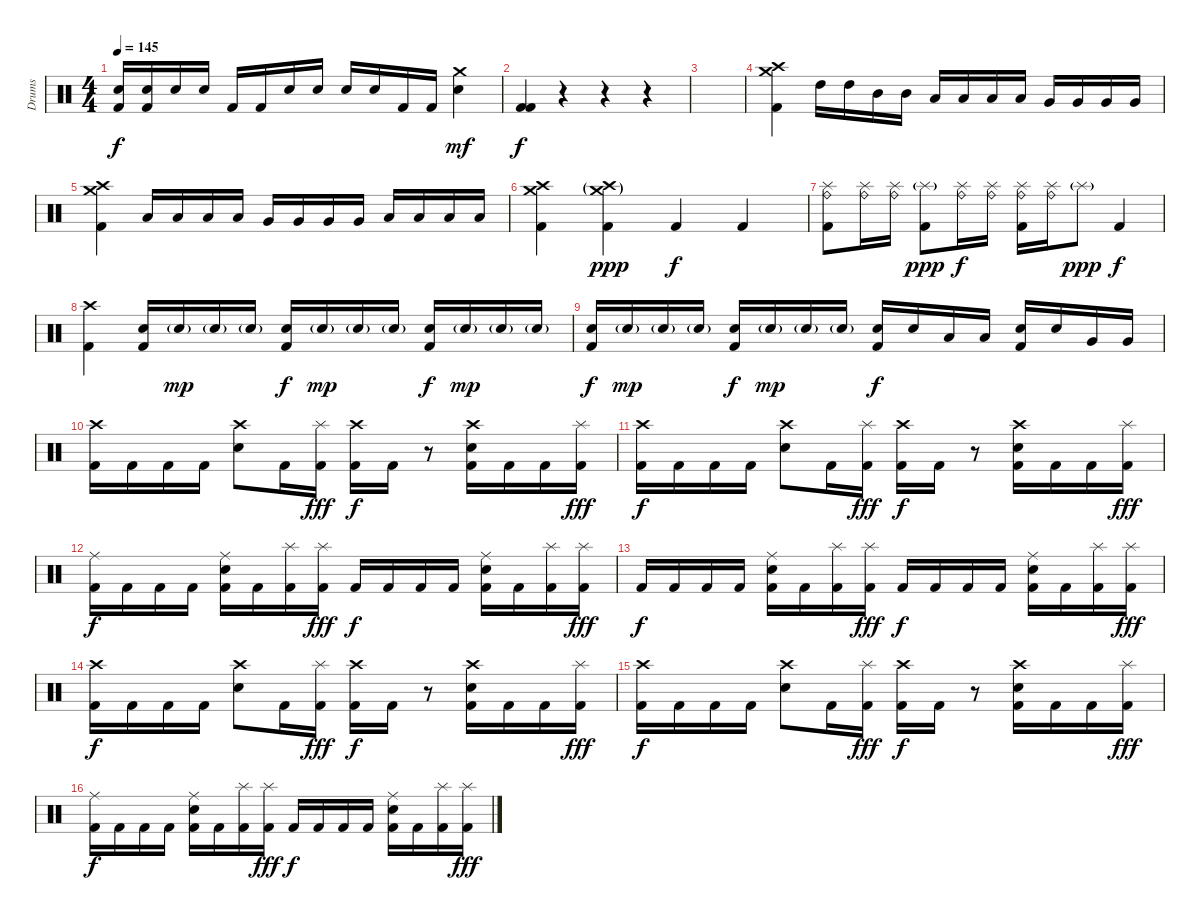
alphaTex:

\track ("Drums" "Drums") {instrument percussion}
\staff {score}
\articulation defaults
\ts (4 4)
\tempo 145
\clef neutral
\ks c
("Electric Snare (hit)" "Kick (hit) 2").16{dy f} ("Electric Snare (hit)" "Kick (hit) 2").16 "Electric Snare (hit)".16 "Electric Snare (hit)".16 "Kick (hit) 2".16 "Kick (hit) 2".16 "Electric Snare (hit)".16 "Electric Snare (hit)".16 "Electric Snare (hit)".16 "Electric Snare (hit)".16 "Kick (hit) 2".16 "Kick (hit) 2".16 ("Crash medium (hit)" "Electric Snare (hit)").4{dy mf} |
("Kick (hit) 2" "Kick (hit) 2").4{dy f} r.4 r.4 r.4 |
|
("Crash high (hit)" "Crash medium (hit)" "Kick (hit) 2").4 "High Tom (hit)".16 "High Tom (hit)".16 "Mid Tom (hit)".16 "Mid Tom (hit)".16 "Low Tom (hit)".16 "Low Tom (hit)".16 "Low Tom (hit)".16 "Low Tom (hit)".16 "Very Low Tom (hit)".16 "Very Low Tom (hit)".16 "Very Low Tom (hit)".16 "Very Low Tom (hit)".16 |
("Crash high (hit)" "Crash medium (hit)" "Kick (hit) 2").4 "Low Tom (hit)".16 "Low Tom (hit)".16 "Low Tom (hit)".16 "Low Tom (hit)".16 "Very Low Tom (hit)".16 "Very Low Tom (hit)".16 "Very Low Tom (hit)".16 "Very Low Tom (hit)".16 "Low Floor Tom (hit)".16 "Low Floor Tom (hit)".16 "Low Floor Tom (hit)".16 "Low Floor Tom (hit)".16 |
("Crash high (hit)" "Crash medium (hit)" "Kick (hit) 2").4 ("Crash high (hit)"{g} "Crash medium (hit)"{g} "Kick (hit) 2").4{dy ppp} "Kick (hit) 2".4{dy f} "Kick (hit) 2".4 |
("Splash (hit)" "Ride (bell)" "Kick (hit) 2").8{balance 0} ("Splash (hit)" "Ride (bell)").16 ("Splash (hit)" "Ride (bell)").16 ("Splash (hit)"{g} "Kick (hit) 2").8{dy ppp} ("Splash (hit)" "Ride (bell)").16{dy f} ("Splash (hit)" "Ride (bell)").16 ("Splash (hit)" "Ride (bell)" "Kick (hit) 2").16 ("Splash (hit)" "Ride (bell)").16 "Splash (hit)"{g}.8{dy ppp} "Kick (hit) 2".4{dy f balance 8} |
("Crash high (hit)" "Kick (hit) 2").4 ("Electric Snare (hit)" "Kick (hit) 2").16 "Electric Snare (hit)"{g}.16{dy mp} "Electric Snare (hit)"{g}.16 "Electric Snare (hit)"{g}.16 ("Electric Snare (hit)" "Kick (hit) 2").16{dy f} "Electric Snare (hit)"{g}.16{dy mp} "Electric Snare (hit)"{g}.16 "Electric Snare (hit)"{g}.16 ("Electric Snare (hit)" "Kick (hit) 2").16{dy f} "Electric Snare (hit)"{g}.16{dy mp} "Electric Snare (hit)"{g}.16 "Electric Snare (hit)"{g}.16 |
("Electric Snare (hit)" "Kick (hit) 2").16{dy f} "Electric Snare (hit)"{g}.16{dy mp} "Electric Snare (hit)"{g}.16 "Electric Snare (hit)"{g}.16 ("Electric Snare (hit)" "Kick (hit) 2").16{dy f} "Electric Snare (hit)"{g}.16{dy mp} "Electric Snare (hit)"{g}.16 "Electric Snare (hit)"{g}.16 ("Electric Snare (hit)" "Kick (hit) 2").16{dy f} "Electric Snare (hit)".16 "Low Tom (hit)".16 "Low Tom (hit)".16 ("Electric Snare (hit)" "Kick (hit) 2").16 "Electric Snare (hit)".16 "Very Low Tom (hit)".16 "Very Low Tom (hit)".16 |
("Crash high (hit)" "Kick (hit) 2").16 "Kick (hit) 2".16 "Kick (hit) 2".16 "Kick (hit) 2".16 ("Crash high (hit)" "Electric Snare (hit)").8 "Kick (hit) 2".16 ("Splash (hit)" "Kick (hit) 2").16{dy fff} ("Crash high (hit)" "Kick (hit) 2").16{dy f} "Kick (hit) 2".16 r.8 ("Crash high (hit)" "Electric Snare (hit)" "Kick (hit) 2").16 "Kick (hit) 2".16 "Kick (hit) 2".16 ("Splash (hit)" "Kick (hit) 2").16{dy fff} |
("Crash high (hit)" "Kick (hit) 2").16{dy f} "Kick (hit) 2".16 "Kick (hit) 2".16 "Kick (hit) 2".16 ("Crash high (hit)" "Electric Snare (hit)").8 "Kick (hit) 2".16 ("Splash (hit)" "Kick (hit) 2").16{dy fff} ("Crash high (hit)" "Kick (hit) 2").16{dy f} "Kick (hit) 2".16 r.8 ("Crash high (hit)" "Electric Snare (hit)" "Kick (hit) 2").16 "Kick (hit) 2".16 "Kick (hit) 2".16 ("Splash (hit)" "Kick (hit) 2").16{dy fff} |
("Ride (middle)" "Kick (hit) 2").16{dy f} "Kick (hit) 2".16 "Kick (hit) 2".16 "Kick (hit) 2".16 ("Ride (middle)" "Electric Snare (hit)" "Kick (hit) 2").16 "Kick (hit) 2".16 ("Splash (hit)" "Kick (hit) 2").16 ("Splash (hit)" "Kick (hit) 2").16{dy fff} "Kick (hit) 2".16{dy f} "Kick (hit) 2".16 "Kick (hit) 2".16 "Kick (hit) 2".16 ("Ride (middle)" "Electric Snare (hit)" "Kick (hit) 2").16 "Kick (hit) 2".16 ("Splash (hit)" "Kick (hit) 2").16 ("Splash (hit)" "Kick (hit) 2").16{dy fff} |
"Kick (hit) 2".16{dy f} "Kick (hit) 2".16 "Kick (hit) 2".16 "Kick (hit) 2".16 ("Ride (middle)" "Electric Snare (hit)" "Kick (hit) 2").16 "Kick (hit) 2".16 ("Splash (hit)" "Kick (hit) 2").16 ("Splash (hit)" "Kick (hit) 2").16{dy fff} "Kick (hit) 2".16{dy f} "Kick (hit) 2".16 "Kick (hit) 2".16 "Kick (hit) 2".16 ("Ride (middle)" "Electric Snare (hit)" "Kick (hit) 2").16 "Kick (hit) 2".16 ("Splash (hit)" "Kick (hit) 2").16 ("Splash (hit)" "Kick (hit) 2").16{dy fff} |
("Crash high (hit)" "Kick (hit) 2").16{dy f} "Kick (hit) 2".16 "Kick (hit) 2".16 "Kick (hit) 2".16 ("Crash high (hit)" "Electric Snare (hit)").8 "Kick (hit) 2".16 ("Splash (hit)" "Kick (hit) 2").16{dy fff} ("Crash high (hit)" "Kick (hit) 2").16{dy f} "Kick (hit) 2".16 r.8 ("Crash high (hit)" "Electric Snare (hit)" "Kick (hit) 2").16 "Kick (hit) 2".16 "Kick (hit) 2".16 ("Splash (hit)" "Kick (hit) 2").16{dy fff} |
("Crash high (hit)" "Kick (hit) 2").16{dy f} "Kick (hit) 2".16 "Kick (hit) 2".16 "Kick (hit) 2".16 ("Crash high (hit)" "Electric Snare (hit)").8 "Kick (hit) 2".16 ("Splash (hit)" "Kick (hit) 2").16{dy fff} ("Crash high (hit)" "Kick (hit) 2").16{dy f} "Kick (hit) 2".16 r.8 ("Crash high (hit)" "Electric Snare (hit)" "Kick (hit) 2").16 "Kick (hit) 2".16 "Kick (hit) 2".16 ("Splash (hit)" "Kick (hit) 2").16{dy fff} |
("Ride (middle)" "Kick (hit) 2").16{dy f} "Kick (hit) 2".16 "Kick (hit) 2".16 "Kick (hit) 2".16 ("Ride (middle)" "Electric Snare (hit)" "Kick (hit) 2").16 "Kick (hit) 2".16 ("Splash (hit)" "Kick (hit) 2").16 ("Splash (hit)" "Kick (hit) 2").16{dy fff} "Kick (hit) 2".16{dy f} "Kick (hit) 2".16 "Kick (hit) 2".16 "Kick (hit) 2".16 ("Ride (middle)" "Electric Snare (hit)" "Kick (hit) 2").16 "Kick (hit) 2".16 ("Splash (hit)" "Kick (hit) 2").16 ("Splash (hit)" "Kick (hit) 2").16{dy fff}
